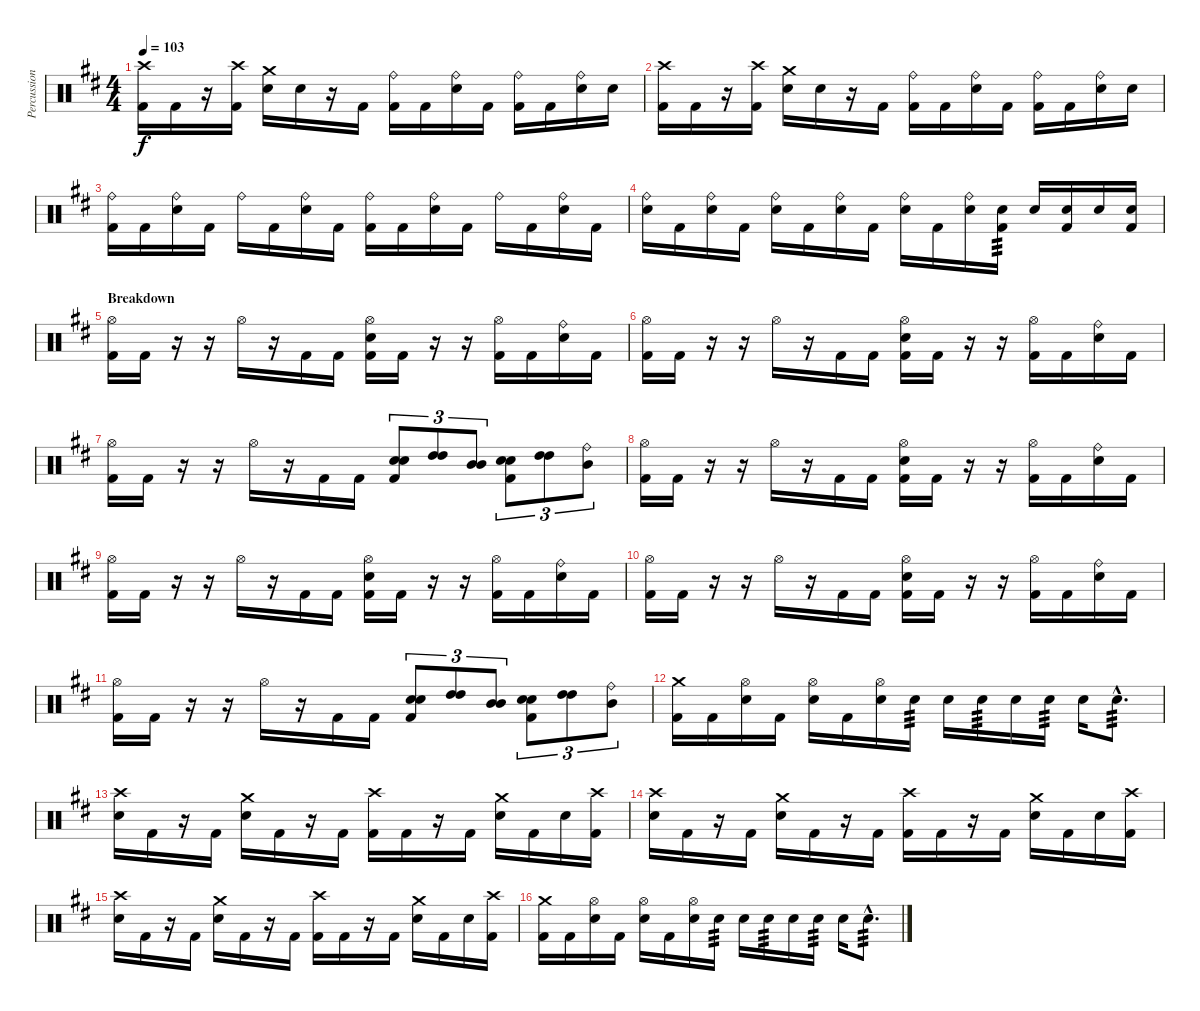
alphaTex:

\track ("Percussion" "Percussion") {instrument percussion}
\staff {score}
\articulation defaults
\ts (4 4)
\tempo 103
\clef neutral
\ks d
("Crash high (hit)" "Kick (hit) 2").16{dy f} "Kick (hit) 2".16 r.16 ("Crash high (hit)" "Kick (hit) 2").16 ("Crash medium (hit)" "Snare (hit) 2").16 "Snare (hit) 2".16 r.16 "Kick (hit) 2".16 ("Ride (bell)" "Kick (hit) 2").16 "Kick (hit) 2".16 ("Ride (bell)" "Snare (hit) 2").16 "Kick (hit) 2".16 ("Ride (bell)" "Kick (hit) 2").16 "Kick (hit) 2".16 ("Ride (bell)" "Snare (hit) 2").16 "Snare (hit) 2".16 |
("Crash high (hit)" "Kick (hit) 2").16 "Kick (hit) 2".16 r.16 ("Crash high (hit)" "Kick (hit) 2").16 ("Crash medium (hit)" "Snare (hit) 2").16 "Snare (hit) 2".16 r.16 "Kick (hit) 2".16 ("Ride (bell)" "Kick (hit) 2").16 "Kick (hit) 2".16 ("Ride (bell)" "Snare (hit) 2").16 "Kick (hit) 2".16 ("Ride (bell)" "Kick (hit) 2").16 "Kick (hit) 2".16 ("Ride (bell)" "Snare (hit) 2").16 "Snare (hit) 2".16 |
("Ride (bell)" "Kick (hit) 2").16 "Kick (hit) 2".16 ("Ride (bell)" "Snare (hit) 2").16 "Kick (hit) 2".16 "Ride (bell)".16 "Kick (hit) 2".16 ("Ride (bell)" "Snare (hit) 2").16 "Kick (hit) 2".16 ("Ride (bell)" "Kick (hit) 2").16 "Kick (hit) 2".16 ("Ride (bell)" "Snare (hit) 2").16 "Kick (hit) 2".16 "Ride (bell)".16 "Kick (hit) 2".16 ("Ride (bell)" "Snare (hit) 2").16 "Kick (hit) 2".16 |
("Ride (bell)" "Snare (hit) 2").16 "Kick (hit) 2".16 ("Ride (bell)" "Snare (hit) 2").16 "Kick (hit) 2".16 ("Ride (bell)" "Snare (hit) 2").16 "Kick (hit) 2".16 ("Ride (bell)" "Snare (hit) 2").16 "Kick (hit) 2".16 ("Ride (bell)" "Snare (hit) 2").16 "Kick (hit) 2".16 ("Ride (bell)" "Snare (hit) 2").16 ("Snare (hit) 2" "Kick (hit) 2").16{tp 3} "Snare (hit) 2".16 ("Snare (hit) 2" "Kick (hit) 2").16 "Snare (hit) 2".16 ("Snare (hit) 2" "Kick (hit) 2").16 |
\section ("" "Breakdown")
("Hi-Hat (open)" "Kick (hit) 2").16 "Kick (hit) 2".16 r.16 r.16 "Hi-Hat (open)".16 r.16 "Kick (hit) 2".16 "Kick (hit) 2".16 ("Hi-Hat (open)" "Snare (hit) 2" "Kick (hit) 2").16 "Kick (hit) 2".16 r.16 r.16 ("Hi-Hat (open)" "Kick (hit) 2").16 "Kick (hit) 2".16 ("Ride (bell)" "Snare (hit) 2").16 "Kick (hit) 2".16 |
("Hi-Hat (open)" "Kick (hit) 2").16 "Kick (hit) 2".16 r.16 r.16 "Hi-Hat (open)".16 r.16 "Kick (hit) 2".16 "Kick (hit) 2".16 ("Hi-Hat (open)" "Snare (hit) 2" "Kick (hit) 2").16 "Kick (hit) 2".16 r.16 r.16 ("Hi-Hat (open)" "Kick (hit) 2").16 "Kick (hit) 2".16 ("Ride (bell)" "Snare (hit) 2").16 "Kick (hit) 2".16 |
("Hi-Hat (open)" "Kick (hit) 2").16 "Kick (hit) 2".16 r.16 r.16 "Hi-Hat (open)".16 r.16 "Kick (hit) 2".16 "Kick (hit) 2".16 ("Snare (hit) 2" "Snare (hit) 2" "Kick (hit) 2").8{tu (3 2)} ("High Tom (hit)" "High Tom (hit)").8{tu (3 2)} ("Mid Tom (hit)" "Mid Tom (hit)").8{tu (3 2)} ("Snare (hit) 2" "Snare (hit) 2" "Kick (hit) 2").8{tu (3 2)} ("High Tom (hit)" "High Tom (hit)").8{tu (3 2)} ("Ride (bell)" "Mid Tom (hit)").8{tu (3 2)} |
("Hi-Hat (open)" "Kick (hit) 2").16 "Kick (hit) 2".16 r.16 r.16 "Hi-Hat (open)".16 r.16 "Kick (hit) 2".16 "Kick (hit) 2".16 ("Hi-Hat (open)" "Snare (hit) 2" "Kick (hit) 2").16 "Kick (hit) 2".16 r.16 r.16 ("Hi-Hat (open)" "Kick (hit) 2").16 "Kick (hit) 2".16 ("Ride (bell)" "Snare (hit) 2").16 "Kick (hit) 2".16 |
("Hi-Hat (open)" "Kick (hit) 2").16 "Kick (hit) 2".16 r.16 r.16 "Hi-Hat (open)".16 r.16 "Kick (hit) 2".16 "Kick (hit) 2".16 ("Hi-Hat (open)" "Snare (hit) 2" "Kick (hit) 2").16 "Kick (hit) 2".16 r.16 r.16 ("Hi-Hat (open)" "Kick (hit) 2").16 "Kick (hit) 2".16 ("Ride (bell)" "Snare (hit) 2").16 "Kick (hit) 2".16 |
("Hi-Hat (open)" "Kick (hit) 2").16 "Kick (hit) 2".16 r.16 r.16 "Hi-Hat (open)".16 r.16 "Kick (hit) 2".16 "Kick (hit) 2".16 ("Hi-Hat (open)" "Snare (hit) 2" "Kick (hit) 2").16 "Kick (hit) 2".16 r.16 r.16 ("Hi-Hat (open)" "Kick (hit) 2").16 "Kick (hit) 2".16 ("Ride (bell)" "Snare (hit) 2").16 "Kick (hit) 2".16 |
("Hi-Hat (open)" "Kick (hit) 2").16 "Kick (hit) 2".16 r.16 r.16 "Hi-Hat (open)".16 r.16 "Kick (hit) 2".16 "Kick (hit) 2".16 ("Snare (hit) 2" "Snare (hit) 2" "Kick (hit) 2").8{tu (3 2)} ("High Tom (hit)" "High Tom (hit)").8{tu (3 2)} ("Mid Tom (hit)" "Mid Tom (hit)").8{tu (3 2)} ("Snare (hit) 2" "Snare (hit) 2" "Kick (hit) 2").8{tu (3 2)} ("High Tom (hit)" "High Tom (hit)").8{tu (3 2)} ("Ride (bell)" "Mid Tom (hit)").8{tu (3 2)} |
("Crash medium (hit)" "Kick (hit) 2").16 "Kick (hit) 2".16 ("Hi-Hat (open)" "Snare (hit) 2").16 "Kick (hit) 2".16 ("Hi-Hat (open)" "Snare (hit) 2").16 "Kick (hit) 2".16 ("Hi-Hat (open)" "Snare (hit) 2").16 "Snare (hit) 2".16{tp 3} "Snare (hit) 2".16 "Snare (hit) 2".16{tp 3} "Snare (hit) 2".16 "Snare (hit) 2".16{tp 3} "Snare (hit) 2".16 "Snare (hit) 2"{hac}.8{d tp 3} |
("Crash high (hit)" "Snare (hit) 2").16 "Kick (hit) 2".16 r.16 "Kick (hit) 2".16 ("Crash medium (hit)" "Snare (hit) 2").16 "Kick (hit) 2".16 r.16 "Kick (hit) 2".16 ("Crash high (hit)" "Kick (hit) 2").16 "Kick (hit) 2".16 r.16 "Kick (hit) 2".16 ("Crash medium (hit)" "Snare (hit) 2").16 "Kick (hit) 2".16 "Snare (hit) 2".16 ("Crash high (hit)" "Kick (hit) 2").16 |
("Crash high (hit)" "Snare (hit) 2").16 "Kick (hit) 2".16 r.16 "Kick (hit) 2".16 ("Crash medium (hit)" "Snare (hit) 2").16 "Kick (hit) 2".16 r.16 "Kick (hit) 2".16 ("Crash high (hit)" "Kick (hit) 2").16 "Kick (hit) 2".16 r.16 "Kick (hit) 2".16 ("Crash medium (hit)" "Snare (hit) 2").16 "Kick (hit) 2".16 "Snare (hit) 2".16 ("Crash high (hit)" "Kick (hit) 2").16 |
("Crash high (hit)" "Snare (hit) 2").16 "Kick (hit) 2".16 r.16 "Kick (hit) 2".16 ("Crash medium (hit)" "Snare (hit) 2").16 "Kick (hit) 2".16 r.16 "Kick (hit) 2".16 ("Crash high (hit)" "Kick (hit) 2").16 "Kick (hit) 2".16 r.16 "Kick (hit) 2".16 ("Crash medium (hit)" "Snare (hit) 2").16 "Kick (hit) 2".16 "Snare (hit) 2".16 ("Crash high (hit)" "Kick (hit) 2").16 |
("Crash medium (hit)" "Kick (hit) 2").16 "Kick (hit) 2".16 ("Hi-Hat (open)" "Snare (hit) 2").16 "Kick (hit) 2".16 ("Hi-Hat (open)" "Snare (hit) 2").16 "Kick (hit) 2".16 ("Hi-Hat (open)" "Snare (hit) 2").16 "Snare (hit) 2".16{tp 3} "Snare (hit) 2".16 "Snare (hit) 2".16{tp 3} "Snare (hit) 2".16 "Snare (hit) 2".16{tp 3} "Snare (hit) 2".16 "Snare (hit) 2"{hac}.8{d tp 3}
